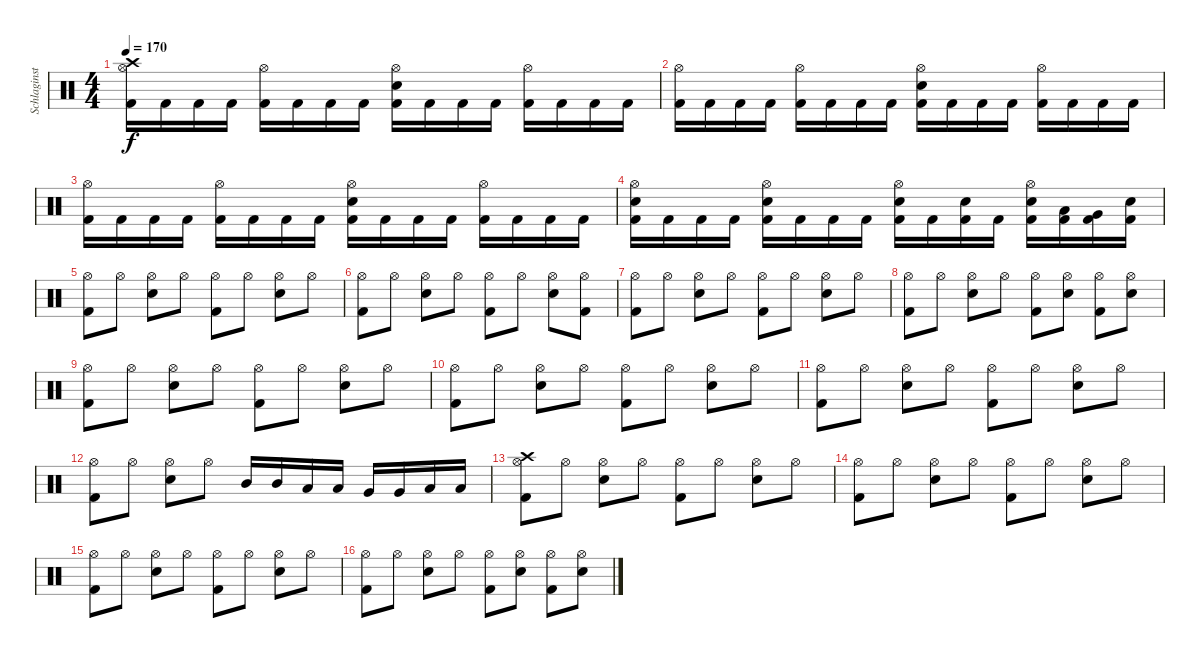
\track ("Schlaginstrumente - Auswahl" "Schlaginst") {instrument percussion}
\staff {score}
\articulation defaults
\ts (4 4)
\tempo 170
\clef neutral
\ks c
("Crash high (hit)" "Hi-Hat (open)" "Kick (hit) 2").16{dy f} "Kick (hit) 2".16 "Kick (hit) 2".16 "Kick (hit) 2".16 ("Hi-Hat (open)" "Kick (hit) 2").16 "Kick (hit) 2".16 "Kick (hit) 2".16 "Kick (hit) 2".16 ("Hi-Hat (open)" "Snare (hit) 2" "Kick (hit) 2").16 "Kick (hit) 2".16 "Kick (hit) 2".16 "Kick (hit) 2".16 ("Hi-Hat (open)" "Kick (hit) 2").16 "Kick (hit) 2".16 "Kick (hit) 2".16 "Kick (hit) 2".16 |
("Hi-Hat (open)" "Kick (hit) 2").16 "Kick (hit) 2".16 "Kick (hit) 2".16 "Kick (hit) 2".16 ("Hi-Hat (open)" "Kick (hit) 2").16 "Kick (hit) 2".16 "Kick (hit) 2".16 "Kick (hit) 2".16 ("Hi-Hat (open)" "Snare (hit) 2" "Kick (hit) 2").16 "Kick (hit) 2".16 "Kick (hit) 2".16 "Kick (hit) 2".16 ("Hi-Hat (open)" "Kick (hit) 2").16 "Kick (hit) 2".16 "Kick (hit) 2".16 "Kick (hit) 2".16 |
("Hi-Hat (open)" "Kick (hit) 2").16 "Kick (hit) 2".16 "Kick (hit) 2".16 "Kick (hit) 2".16 ("Hi-Hat (open)" "Kick (hit) 2").16 "Kick (hit) 2".16 "Kick (hit) 2".16 "Kick (hit) 2".16 ("Hi-Hat (open)" "Snare (hit) 2" "Kick (hit) 2").16 "Kick (hit) 2".16 "Kick (hit) 2".16 "Kick (hit) 2".16 ("Hi-Hat (open)" "Kick (hit) 2").16 "Kick (hit) 2".16 "Kick (hit) 2".16 "Kick (hit) 2".16 |
("Hi-Hat (open)" "Snare (hit) 2" "Kick (hit) 2").16 "Kick (hit) 2".16 "Kick (hit) 2".16 "Kick (hit) 2".16 ("Hi-Hat (open)" "Snare (hit) 2" "Kick (hit) 2").16 "Kick (hit) 2".16 "Kick (hit) 2".16 "Kick (hit) 2".16 ("Hi-Hat (open)" "Snare (hit) 2" "Kick (hit) 2").16 "Kick (hit) 2".16 ("Snare (hit) 2" "Kick (hit) 2").16 "Kick (hit) 2".16 ("Hi-Hat (open)" "Snare (hit) 2" "Kick (hit) 2").16 ("Low Tom (hit)" "Kick (hit) 2").16 ("Very Low Tom (hit)" "Kick (hit) 2").16 ("Snare (hit) 2" "Kick (hit) 2").16 |
("Hi-Hat (open)" "Kick (hit) 2").8 "Hi-Hat (open)".8 ("Hi-Hat (open)" "Snare (hit) 2").8 "Hi-Hat (open)".8 ("Hi-Hat (open)" "Kick (hit) 2").8 "Hi-Hat (open)".8 ("Hi-Hat (open)" "Snare (hit) 2").8 "Hi-Hat (open)".8 |
("Hi-Hat (open)" "Kick (hit) 2").8 "Hi-Hat (open)".8 ("Hi-Hat (open)" "Snare (hit) 2").8 "Hi-Hat (open)".8 ("Hi-Hat (open)" "Kick (hit) 2").8 "Hi-Hat (open)".8 ("Hi-Hat (open)" "Snare (hit) 2").8 ("Hi-Hat (open)" "Kick (hit) 2").8 |
("Hi-Hat (open)" "Kick (hit) 2").8 "Hi-Hat (open)".8 ("Hi-Hat (open)" "Snare (hit) 2").8 "Hi-Hat (open)".8 ("Hi-Hat (open)" "Kick (hit) 2").8 "Hi-Hat (open)".8 ("Hi-Hat (open)" "Snare (hit) 2").8 "Hi-Hat (open)".8 |
("Hi-Hat (open)" "Kick (hit) 2").8 "Hi-Hat (open)".8 ("Hi-Hat (open)" "Snare (hit) 2").8 "Hi-Hat (open)".8 ("Hi-Hat (open)" "Kick (hit) 2").8 ("Hi-Hat (open)" "Snare (hit) 2").8 ("Hi-Hat (open)" "Kick (hit) 2").8 ("Hi-Hat (open)" "Snare (hit) 2").8 |
("Hi-Hat (open)" "Kick (hit) 2").8 "Hi-Hat (open)".8 ("Hi-Hat (open)" "Snare (hit) 2").8 "Hi-Hat (open)".8 ("Hi-Hat (open)" "Kick (hit) 2").8 "Hi-Hat (open)".8 ("Hi-Hat (open)" "Snare (hit) 2").8 "Hi-Hat (open)".8 |
("Hi-Hat (open)" "Kick (hit) 2").8 "Hi-Hat (open)".8 ("Hi-Hat (open)" "Snare (hit) 2").8 "Hi-Hat (open)".8 ("Hi-Hat (open)" "Kick (hit) 2").8 "Hi-Hat (open)".8 ("Hi-Hat (open)" "Snare (hit) 2").8 "Hi-Hat (open)".8 |
("Hi-Hat (open)" "Kick (hit) 2").8 "Hi-Hat (open)".8 ("Hi-Hat (open)" "Snare (hit) 2").8 "Hi-Hat (open)".8 ("Hi-Hat (open)" "Kick (hit) 2").8 "Hi-Hat (open)".8 ("Hi-Hat (open)" "Snare (hit) 2").8 "Hi-Hat (open)".8 |
("Hi-Hat (open)" "Kick (hit) 2").8 "Hi-Hat (open)".8 ("Hi-Hat (open)" "Snare (hit) 2").8 "Hi-Hat (open)".8 "Mid Tom (hit)".16 "Mid Tom (hit)".16 "Low Tom (hit)".16 "Low Tom (hit)".16 "Very Low Tom (hit)".16 "Very Low Tom (hit)".16 "Low Floor Tom (hit)".16 "Low Floor Tom (hit)".16 |
("Crash high (hit)" "Hi-Hat (open)" "Kick (hit) 2").8 "Hi-Hat (open)".8 ("Hi-Hat (open)" "Snare (hit) 2").8 "Hi-Hat (open)".8 ("Hi-Hat (open)" "Kick (hit) 2").8 "Hi-Hat (open)".8 ("Hi-Hat (open)" "Snare (hit) 2").8 "Hi-Hat (open)".8 |
("Hi-Hat (open)" "Kick (hit) 2").8 "Hi-Hat (open)".8 ("Hi-Hat (open)" "Snare (hit) 2").8 "Hi-Hat (open)".8 ("Hi-Hat (open)" "Kick (hit) 2").8 "Hi-Hat (open)".8 ("Hi-Hat (open)" "Snare (hit) 2").8 "Hi-Hat (open)".8 |
("Hi-Hat (open)" "Kick (hit) 2").8 "Hi-Hat (open)".8 ("Hi-Hat (open)" "Snare (hit) 2").8 "Hi-Hat (open)".8 ("Hi-Hat (open)" "Kick (hit) 2").8 "Hi-Hat (open)".8 ("Hi-Hat (open)" "Snare (hit) 2").8 "Hi-Hat (open)".8 |
("Hi-Hat (open)" "Kick (hit) 2").8 "Hi-Hat (open)".8 ("Hi-Hat (open)" "Snare (hit) 2").8 "Hi-Hat (open)".8 ("Hi-Hat (open)" "Kick (hit) 2").8 ("Hi-Hat (open)" "Snare (hit) 2").8 ("Hi-Hat (open)" "Kick (hit) 2").8 ("Hi-Hat (open)" "Snare (hit) 2").8
